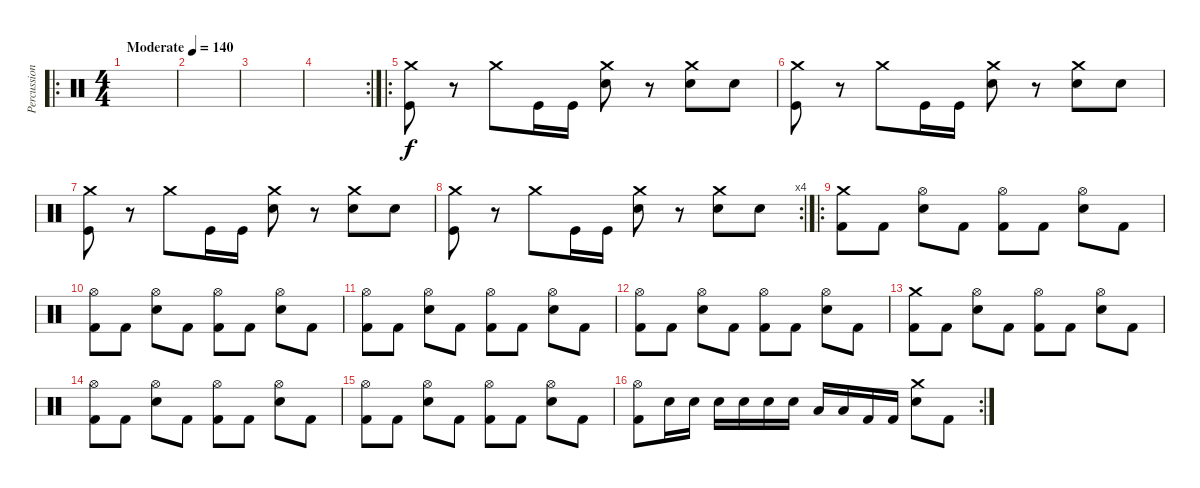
\track ("Percussion" "Percussion") {instrument percussion}
\staff {score}
\articulation defaults
\ro
\ts (4 4)
\tempo (140 "Moderate")
\clef neutral
\ks c
|
|
|
\rc 2
|
\ro
("Crash medium (hit)" "Kick (hit)").8 r.8 "Crash medium (hit)".8 "Kick (hit)".16 "Kick (hit)".16 ("Snare (hit) 2" "Crash medium (hit)").8 r.8 ("Crash medium (hit)" "Snare (hit) 2").8 "Snare (hit) 2".8 |
("Crash medium (hit)" "Kick (hit)").8 r.8 "Crash medium (hit)".8 "Kick (hit)".16 "Kick (hit)".16 ("Snare (hit) 2" "Crash medium (hit)").8 r.8 ("Crash medium (hit)" "Snare (hit) 2").8 "Snare (hit) 2".8 |
("Crash medium (hit)" "Kick (hit)").8 r.8 "Crash medium (hit)".8 "Kick (hit)".16 "Kick (hit)".16 ("Snare (hit) 2" "Crash medium (hit)").8 r.8 ("Crash medium (hit)" "Snare (hit) 2").8 "Snare (hit) 2".8 |
\rc 4
("Crash medium (hit)" "Kick (hit)").8 r.8 "Crash medium (hit)".8 "Kick (hit)".16 "Kick (hit)".16 ("Snare (hit) 2" "Crash medium (hit)").8 r.8 ("Crash medium (hit)" "Snare (hit) 2").8 "Snare (hit) 2".8 |
\ro
("Crash medium (hit)" "Kick (hit) 2").8 "Kick (hit) 2".8 ("Hi-Hat (open)" "Electric Snare (hit)").8 "Kick (hit) 2".8 ("Hi-Hat (open)" "Kick (hit) 2").8 "Kick (hit) 2".8 ("Hi-Hat (open)" "Electric Snare (hit)").8 "Kick (hit) 2".8 |
("Hi-Hat (open)" "Kick (hit) 2").8 "Kick (hit) 2".8 ("Hi-Hat (open)" "Electric Snare (hit)").8 "Kick (hit) 2".8 ("Hi-Hat (open)" "Kick (hit) 2").8 "Kick (hit) 2".8 ("Hi-Hat (open)" "Electric Snare (hit)").8 "Kick (hit) 2".8 |
("Hi-Hat (open)" "Kick (hit) 2").8 "Kick (hit) 2".8 ("Hi-Hat (open)" "Electric Snare (hit)").8 "Kick (hit) 2".8 ("Hi-Hat (open)" "Kick (hit) 2").8 "Kick (hit) 2".8 ("Hi-Hat (open)" "Electric Snare (hit)").8 "Kick (hit) 2".8 |
("Hi-Hat (open)" "Kick (hit) 2").8 "Kick (hit) 2".8 ("Hi-Hat (open)" "Electric Snare (hit)").8 "Kick (hit) 2".8 ("Hi-Hat (open)" "Kick (hit) 2").8 "Kick (hit) 2".8 ("Hi-Hat (open)" "Electric Snare (hit)").8 "Kick (hit) 2".8 |
("Crash medium (hit)" "Kick (hit) 2").8 "Kick (hit) 2".8 ("Hi-Hat (open)" "Electric Snare (hit)").8 "Kick (hit) 2".8 ("Hi-Hat (open)" "Kick (hit) 2").8 "Kick (hit) 2".8 ("Hi-Hat (open)" "Electric Snare (hit)").8 "Kick (hit) 2".8 |
("Hi-Hat (open)" "Kick (hit) 2").8 "Kick (hit) 2".8 ("Hi-Hat (open)" "Electric Snare (hit)").8 "Kick (hit) 2".8 ("Hi-Hat (open)" "Kick (hit) 2").8 "Kick (hit) 2".8 ("Hi-Hat (open)" "Electric Snare (hit)").8 "Kick (hit) 2".8 |
("Hi-Hat (open)" "Kick (hit) 2").8 "Kick (hit) 2".8 ("Hi-Hat (open)" "Electric Snare (hit)").8 "Kick (hit) 2".8 ("Hi-Hat (open)" "Kick (hit) 2").8 "Kick (hit) 2".8 ("Hi-Hat (open)" "Electric Snare (hit)").8 "Kick (hit) 2".8 |
\rc 2
("Hi-Hat (open)" "Kick (hit) 2").8 "Electric Snare (hit)".16 "Electric Snare (hit)".16 "Electric Snare (hit)".16 "Electric Snare (hit)".16 "Electric Snare (hit)".16 "Electric Snare (hit)".16 "Low Tom (hit)".16 "Low Tom (hit)".16 "Kick (hit) 2".16 "Kick (hit) 2".16 ("Crash medium (hit)" "Electric Snare (hit)").8 "Kick (hit) 2".8
